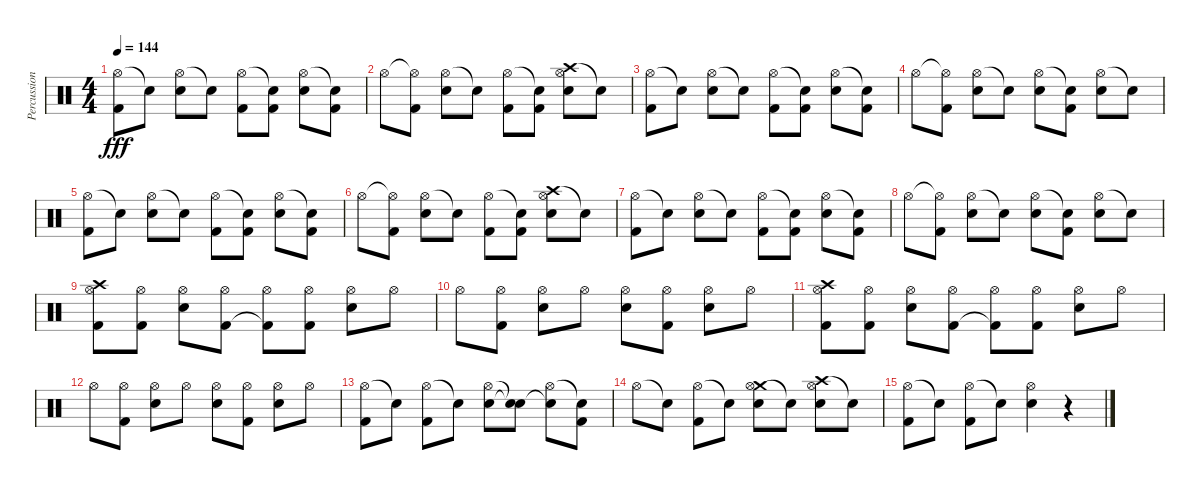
\track ("Percussion" "Percussion") {instrument percussion}
\staff {score}
\articulation defaults
\ts (4 4)
\tempo 144
\clef neutral
\ks c
("Hi-Hat (open)" "Kick (hit) 2").8{dy fff} "Snare (hit)"{t}.8 ("Hi-Hat (open)" "Electric Snare (hit)").8 "Snare (hit)"{t}.8 ("Hi-Hat (open)" "Kick (hit) 2").8 ("Snare (hit)"{t} "Kick (hit) 2").8 ("Hi-Hat (open)" "Electric Snare (hit)").8 ("Snare (hit)"{t} "Kick (hit) 2").8 |
"Hi-Hat (open)".8 ("Hi-Hat (open)"{t} "Kick (hit) 2").8 ("Hi-Hat (open)" "Electric Snare (hit)").8 "Snare (hit)"{t}.8 ("Hi-Hat (open)" "Kick (hit) 2").8 ("Snare (hit)"{t} "Kick (hit) 2").8 ("Crash high (hit)" "Hi-Hat (open)" "Electric Snare (hit)").8 "Snare (hit)"{t}.8 |
("Hi-Hat (open)" "Kick (hit) 2").8 "Snare (hit)"{t}.8 ("Hi-Hat (open)" "Electric Snare (hit)").8 "Snare (hit)"{t}.8 ("Hi-Hat (open)" "Kick (hit) 2").8 ("Snare (hit)"{t} "Kick (hit) 2").8 ("Hi-Hat (open)" "Electric Snare (hit)").8 ("Snare (hit)"{t} "Kick (hit) 2").8 |
"Hi-Hat (open)".8 ("Hi-Hat (open)"{t} "Kick (hit) 2").8 ("Hi-Hat (open)" "Electric Snare (hit)").8 "Snare (hit)"{t}.8 ("Hi-Hat (open)" "Electric Snare (hit)").8 ("Snare (hit)"{t} "Kick (hit) 2").8 ("Hi-Hat (open)" "Electric Snare (hit)").8 "Snare (hit)"{t}.8 |
("Hi-Hat (open)" "Kick (hit) 2").8 "Snare (hit)"{t}.8 ("Hi-Hat (open)" "Electric Snare (hit)").8 "Snare (hit)"{t}.8 ("Hi-Hat (open)" "Kick (hit) 2").8 ("Snare (hit)"{t} "Kick (hit) 2").8 ("Hi-Hat (open)" "Electric Snare (hit)").8 ("Snare (hit)"{t} "Kick (hit) 2").8 |
"Hi-Hat (open)".8 ("Hi-Hat (open)"{t} "Kick (hit) 2").8 ("Hi-Hat (open)" "Electric Snare (hit)").8 "Snare (hit)"{t}.8 ("Hi-Hat (open)" "Kick (hit) 2").8 ("Snare (hit)"{t} "Kick (hit) 2").8 ("Crash high (hit)" "Hi-Hat (open)" "Electric Snare (hit)").8 "Snare (hit)"{t}.8 |
("Hi-Hat (open)" "Kick (hit) 2").8 "Snare (hit)"{t}.8 ("Hi-Hat (open)" "Electric Snare (hit)").8 "Snare (hit)"{t}.8 ("Hi-Hat (open)" "Kick (hit) 2").8 ("Snare (hit)"{t} "Kick (hit) 2").8 ("Hi-Hat (open)" "Electric Snare (hit)").8 ("Snare (hit)"{t} "Kick (hit) 2").8 |
"Hi-Hat (open)".8 ("Hi-Hat (open)"{t} "Kick (hit) 2").8 ("Hi-Hat (open)" "Electric Snare (hit)").8 "Snare (hit)"{t}.8 ("Hi-Hat (open)" "Electric Snare (hit)").8 ("Snare (hit)"{t} "Kick (hit) 2").8 ("Hi-Hat (open)" "Electric Snare (hit)").8 "Snare (hit)"{t}.8 |
("Hi-Hat (open)" "Crash high (hit)" "Kick (hit) 2").8 ("Hi-Hat (open)" "Kick (hit) 2").8 ("Hi-Hat (open)" "Electric Snare (hit)").8 ("Hi-Hat (open)" "Kick (hit) 2").8 ("Hi-Hat (open)" "Kick (hit) 2"{t}).8 ("Hi-Hat (open)" "Kick (hit) 2").8 ("Hi-Hat (open)" "Electric Snare (hit)").8 "Hi-Hat (open)".8 |
"Hi-Hat (open)".8 ("Hi-Hat (open)" "Kick (hit) 2").8 ("Hi-Hat (open)" "Electric Snare (hit)").8 "Hi-Hat (open)".8 ("Hi-Hat (open)" "Electric Snare (hit)").8 ("Hi-Hat (open)" "Kick (hit) 2").8 ("Hi-Hat (open)" "Electric Snare (hit)").8 "Hi-Hat (open)".8 |
("Hi-Hat (open)" "Crash high (hit)" "Kick (hit) 2").8 ("Hi-Hat (open)" "Kick (hit) 2").8 ("Hi-Hat (open)" "Electric Snare (hit)").8 ("Hi-Hat (open)" "Kick (hit) 2").8 ("Hi-Hat (open)" "Kick (hit) 2"{t}).8 ("Hi-Hat (open)" "Kick (hit) 2").8 ("Hi-Hat (open)" "Electric Snare (hit)").8 "Hi-Hat (open)".8 |
"Hi-Hat (open)".8 ("Hi-Hat (open)" "Kick (hit) 2").8 ("Hi-Hat (open)" "Electric Snare (hit)").8 "Hi-Hat (open)".8 ("Hi-Hat (open)" "Electric Snare (hit)").8 ("Hi-Hat (open)" "Kick (hit) 2").8 ("Hi-Hat (open)" "Electric Snare (hit)").8 "Hi-Hat (open)".8 |
("Hi-Hat (open)" "Kick (hit) 2").8 "Snare (hit)"{t}.8 ("Hi-Hat (open)" "Kick (hit) 2").8 "Snare (hit)"{t}.8 ("Hi-Hat (open)" "Electric Snare (hit)").8 ("Snare (hit)"{t} "Snare (hit)"{t}).8 ("Hi-Hat (open)" "Electric Snare (hit)"{t}).8 ("Snare (hit)"{t} "Kick (hit) 2").8 |
"Hi-Hat (open)".8 "Snare (hit)"{t}.8 ("Hi-Hat (open)" "Kick (hit) 2").8 "Snare (hit)"{t}.8 ("Crash medium (hit)" "Hi-Hat (open)" "Electric Snare (hit)").8 "Snare (hit)"{t}.8 ("Crash high (hit)" "Hi-Hat (open)" "Electric Snare (hit)").8 "Snare (hit)"{t}.8 |
("Hi-Hat (open)" "Kick (hit) 2").8 "Snare (hit)"{t}.8 ("Hi-Hat (open)" "Kick (hit) 2").8 "Snare (hit)"{t}.8 ("Hi-Hat (open)" "Electric Snare (hit)").4 r.4
